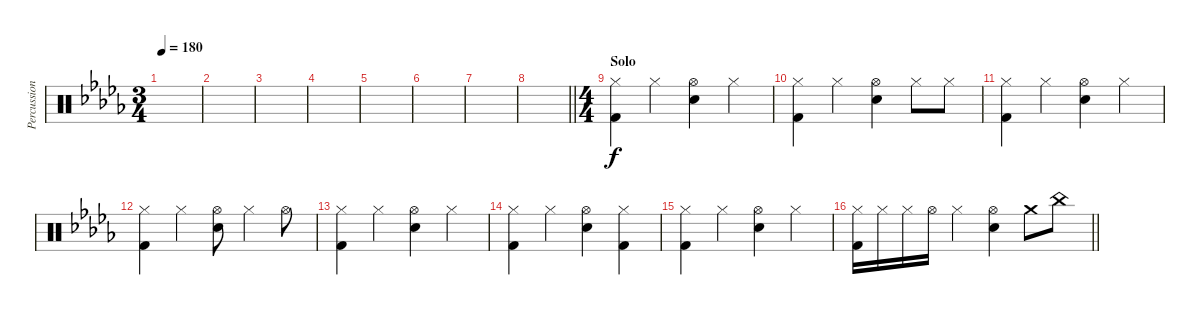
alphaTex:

\track ("Percussions" "Percussion") {instrument percussion}
\staff {score}
\articulation defaults
\ts (3 4)
\tempo 180
\clef neutral
\ks bbminor
|
|
|
|
|
|
|
\barLineRight lightlight
|
\ts (4 4)
\section ("" "Solo")
("Hi-Hat (closed)" "Kick (hit) 2").4 "Hi-Hat (closed)".4 ("Hi-Hat (open)" "Electric Snare (hit)").4 "Hi-Hat (closed)".4 |
("Hi-Hat (closed)" "Kick (hit) 2").4 "Hi-Hat (closed)".4 ("Hi-Hat (open)" "Electric Snare (hit)").4 "Hi-Hat (closed)".8 "Hi-Hat (closed)".8 |
("Hi-Hat (closed)" "Kick (hit) 2").4 "Hi-Hat (closed)".4 ("Hi-Hat (open)" "Electric Snare (hit)").4 "Hi-Hat (closed)".4 |
("Hi-Hat (closed)" "Kick (hit) 2").4 "Hi-Hat (closed)".4 ("Hi-Hat (open)" "Electric Snare (hit)").8 "Hi-Hat (closed)".4 "Hi-Hat (open)".8 |
("Hi-Hat (closed)" "Kick (hit) 2").4 "Hi-Hat (closed)".4 ("Hi-Hat (open)" "Electric Snare (hit)").4 "Hi-Hat (closed)".4 |
("Hi-Hat (closed)" "Kick (hit) 2").4 "Hi-Hat (closed)".4 ("Hi-Hat (open)" "Electric Snare (hit)").4 ("Hi-Hat (closed)" "Kick (hit) 2").4 |
("Hi-Hat (closed)" "Kick (hit) 2").4 "Hi-Hat (closed)".4 ("Hi-Hat (open)" "Electric Snare (hit)").4 "Hi-Hat (closed)".4 |
\barLineRight lightlight
("Hi-Hat (closed)" "Kick (hit) 2").16 "Hi-Hat (closed)".16 "Hi-Hat (closed)".16 "Hi-Hat (open)".16 "Hi-Hat (closed)".4 ("Hi-Hat (open)" "Electric Snare (hit)").4 "Crash medium (hit)".8 "China (hit)".8
